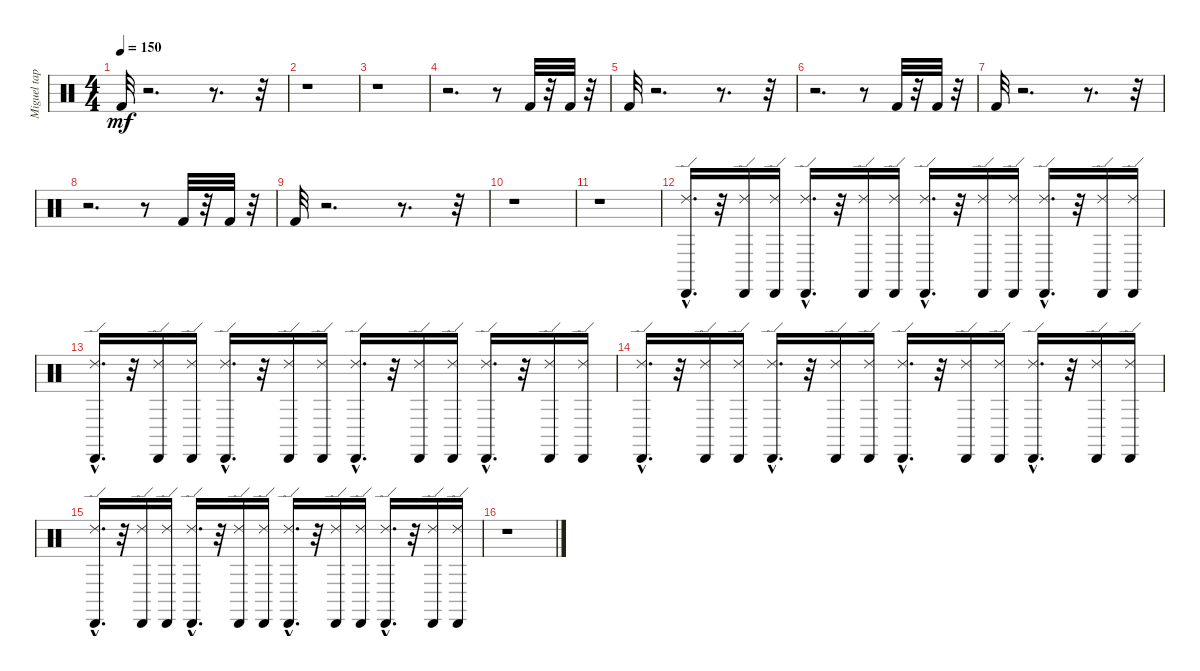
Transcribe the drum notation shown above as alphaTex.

\track ("Miguel tapia" "Miguel tap") {instrument percussion}
\staff {score}
\articulation defaults
\ts (4 4)
\tempo 150
\clef neutral
\ks c "Kick (hit) 2".32{dy mf}
r.2{d} r.8{d} r.32 |
r.1 |
r.1 |
r.2{d} r.8 "Kick (hit) 2".32 r.32 "Kick (hit) 2".32 r.32 |
"Kick (hit) 2".32 r.2{d} r.8{d} r.32 |
r.2{d} r.8 "Kick (hit) 2".32 r.32 "Kick (hit) 2".32 r.32 |
"Kick (hit) 2".32 r.2{d} r.8{d} r.32 |
r.2{d} r.8 "Kick (hit) 2".32 r.32 "Kick (hit) 2".32 r.32 |
"Kick (hit) 2".32 r.2{d} r.8{d} r.32 |
r.1 |
r.1 |
("Ride (edge) 2"{hac} "Cabasa (hit)"{hac}).16{d} r.32 ("Cabasa (hit)" "Ride (edge) 2").16 ("Ride (edge) 2" "Cabasa (hit)").16 ("Cabasa (hit)"{hac} "Ride (edge) 2"{hac}).16{d} r.32 ("Cabasa (hit)" "Ride (edge) 2").16 ("Cabasa (hit)" "Ride (edge) 2").16 ("Ride (edge) 2"{hac} "Cabasa (hit)"{hac}).16{d} r.32 ("Ride (edge) 2" "Cabasa (hit)").16 ("Cabasa (hit)" "Ride (edge) 2").16 ("Ride (edge) 2"{hac} "Cabasa (hit)"{hac}).16{d} r.32 ("Cabasa (hit)" "Ride (edge) 2").16 ("Cabasa (hit)" "Ride (edge) 2").16 |
("Ride (edge) 2"{hac} "Cabasa (hit)"{hac}).16{d} r.32 ("Ride (edge) 2" "Cabasa (hit)").16 ("Cabasa (hit)" "Ride (edge) 2").16 ("Cabasa (hit)"{hac} "Ride (edge) 2"{hac}).16{d} r.32 ("Ride (edge) 2" "Cabasa (hit)").16 ("Cabasa (hit)" "Ride (edge) 2").16 ("Ride (edge) 2"{hac} "Cabasa (hit)"{hac}).16{d} r.32 ("Cabasa (hit)" "Ride (edge) 2").16 ("Ride (edge) 2" "Cabasa (hit)").16 ("Ride (edge) 2"{hac} "Cabasa (hit)"{hac}).16{d} r.32 ("Cabasa (hit)" "Ride (edge) 2").16 ("Ride (edge) 2" "Cabasa (hit)").16 |
("Ride (edge) 2"{hac} "Cabasa (hit)"{hac}).16{d} r.32 ("Cabasa (hit)" "Ride (edge) 2").16 ("Cabasa (hit)" "Ride (edge) 2").16 ("Cabasa (hit)"{hac} "Ride (edge) 2"{hac}).16{d} r.32 ("Ride (edge) 2" "Cabasa (hit)").16 ("Ride (edge) 2" "Cabasa (hit)").16 ("Cabasa (hit)"{hac} "Ride (edge) 2"{hac}).16{d} r.32 ("Cabasa (hit)" "Ride (edge) 2").16 ("Ride (edge) 2" "Cabasa (hit)").16 ("Ride (edge) 2"{hac} "Cabasa (hit)"{hac}).16{d} r.32 ("Cabasa (hit)" "Ride (edge) 2").16 ("Ride (edge) 2" "Cabasa (hit)").16 |
("Cabasa (hit)"{hac} "Ride (edge) 2"{hac}).16{d} r.32 ("Ride (edge) 2" "Cabasa (hit)").16 ("Cabasa (hit)" "Ride (edge) 2").16 ("Ride (edge) 2"{hac} "Cabasa (hit)"{hac}).16{d} r.32 ("Cabasa (hit)" "Ride (edge) 2").16 ("Cabasa (hit)" "Ride (edge) 2").16 ("Ride (edge) 2"{hac} "Cabasa (hit)"{hac}).16{d} r.32 ("Cabasa (hit)" "Ride (edge) 2").16 ("Ride (edge) 2" "Cabasa (hit)").16 ("Ride (edge) 2"{hac} "Cabasa (hit)"{hac}).16{d} r.32 ("Ride (edge) 2" "Cabasa (hit)").16 ("Cabasa (hit)" "Ride (edge) 2").16 |
r.1
